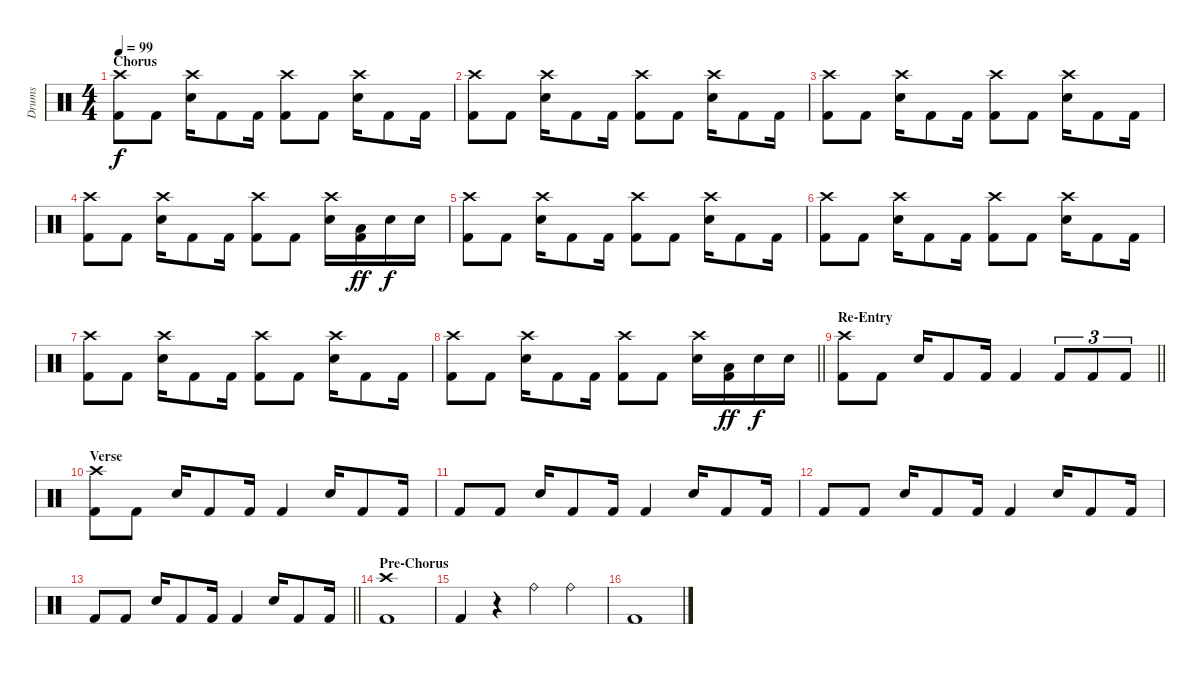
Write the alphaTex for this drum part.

\track ("Drums" "Drums") {instrument percussion}
\staff {score}
\articulation defaults
\ts (4 4)
\section ("" "Chorus")
\tempo 99
\clef neutral
\ks c
("Crash high (hit)" "Kick (hit) 2").8{dy f} "Kick (hit) 2".8 ("Crash high (hit)" "Electric Snare (hit)").16 "Kick (hit) 2".8 "Kick (hit) 2".16 ("Crash high (hit)" "Kick (hit) 2").8 "Kick (hit) 2".8 ("Crash high (hit)" "Electric Snare (hit)").16 "Kick (hit) 2".8 "Kick (hit) 2".16 |
("Crash high (hit)" "Kick (hit) 2").8 "Kick (hit) 2".8 ("Crash high (hit)" "Electric Snare (hit)").16 "Kick (hit) 2".8 "Kick (hit) 2".16 ("Crash high (hit)" "Kick (hit) 2").8 "Kick (hit) 2".8 ("Crash high (hit)" "Electric Snare (hit)").16 "Kick (hit) 2".8 "Kick (hit) 2".16 |
("Crash high (hit)" "Kick (hit) 2").8 "Kick (hit) 2".8 ("Crash high (hit)" "Electric Snare (hit)").16 "Kick (hit) 2".8 "Kick (hit) 2".16 ("Crash high (hit)" "Kick (hit) 2").8 "Kick (hit) 2".8 ("Crash high (hit)" "Electric Snare (hit)").16 "Kick (hit) 2".8 "Kick (hit) 2".16 |
("Crash high (hit)" "Kick (hit) 2").8 "Kick (hit) 2".8 ("Crash high (hit)" "Electric Snare (hit)").16 "Kick (hit) 2".8 "Kick (hit) 2".16 ("Crash high (hit)" "Kick (hit) 2").8 "Kick (hit) 2".8 ("Crash high (hit)" "Electric Snare (hit)").16 ("Low Floor Tom (hit)" "Kick (hit) 2").16{dy ff} "Electric Snare (hit)".16{dy f} "Electric Snare (hit)".16 |
("Crash high (hit)" "Kick (hit) 2").8 "Kick (hit) 2".8 ("Crash high (hit)" "Electric Snare (hit)").16 "Kick (hit) 2".8 "Kick (hit) 2".16 ("Crash high (hit)" "Kick (hit) 2").8 "Kick (hit) 2".8 ("Crash high (hit)" "Electric Snare (hit)").16 "Kick (hit) 2".8 "Kick (hit) 2".16 |
("Crash high (hit)" "Kick (hit) 2").8 "Kick (hit) 2".8 ("Crash high (hit)" "Electric Snare (hit)").16 "Kick (hit) 2".8 "Kick (hit) 2".16 ("Crash high (hit)" "Kick (hit) 2").8 "Kick (hit) 2".8 ("Crash high (hit)" "Electric Snare (hit)").16 "Kick (hit) 2".8 "Kick (hit) 2".16 |
("Crash high (hit)" "Kick (hit) 2").8 "Kick (hit) 2".8 ("Crash high (hit)" "Electric Snare (hit)").16 "Kick (hit) 2".8 "Kick (hit) 2".16 ("Crash high (hit)" "Kick (hit) 2").8 "Kick (hit) 2".8 ("Crash high (hit)" "Electric Snare (hit)").16 "Kick (hit) 2".8 "Kick (hit) 2".16 |
\barLineRight lightlight
("Crash high (hit)" "Kick (hit) 2").8 "Kick (hit) 2".8 ("Crash high (hit)" "Electric Snare (hit)").16 "Kick (hit) 2".8 "Kick (hit) 2".16 ("Crash high (hit)" "Kick (hit) 2").8 "Kick (hit) 2".8 ("Crash high (hit)" "Electric Snare (hit)").16 ("Low Floor Tom (hit)" "Kick (hit) 2").16{dy ff} "Electric Snare (hit)".16{dy f} "Electric Snare (hit)".16 |
\section ("" "Re-Entry")
\barLineRight lightlight
("Crash high (hit)" "Kick (hit) 2").8 "Kick (hit) 2".8 "Electric Snare (hit)".16 "Kick (hit) 2".8 "Kick (hit) 2".16 "Kick (hit) 2".4 "Kick (hit) 2".8{tu (3 2)} "Kick (hit) 2".8{tu (3 2)} "Kick (hit) 2".8{tu (3 2)} |
\section ("" "Verse")
("Crash high (hit)" "Kick (hit) 2").8 "Kick (hit) 2".8 "Electric Snare (hit)".16 "Kick (hit) 2".8 "Kick (hit) 2".16 "Kick (hit) 2".4 "Electric Snare (hit)".16 "Kick (hit) 2".8 "Kick (hit) 2".16 |
"Kick (hit) 2".8 "Kick (hit) 2".8 "Electric Snare (hit)".16 "Kick (hit) 2".8 "Kick (hit) 2".16 "Kick (hit) 2".4 "Electric Snare (hit)".16 "Kick (hit) 2".8 "Kick (hit) 2".16 |
"Kick (hit) 2".8 "Kick (hit) 2".8 "Electric Snare (hit)".16 "Kick (hit) 2".8 "Kick (hit) 2".16 "Kick (hit) 2".4 "Electric Snare (hit)".16 "Kick (hit) 2".8 "Kick (hit) 2".16 |
\barLineRight lightlight "Kick (hit) 2".8 "Kick (hit) 2".8 "Electric Snare (hit)".16 "Kick (hit) 2".8 "Kick (hit) 2".16 "Kick (hit) 2".4 "Electric Snare (hit)".16 "Kick (hit) 2".8 "Kick (hit) 2".16
|
\section ("" "Pre-Chorus")
("Crash high (hit)" "Kick (hit) 2").1 |
"Kick (hit) 2".4 r.4 "Ride (bell)".4 "Ride (bell)".4 |
"Kick (hit) 2".1
